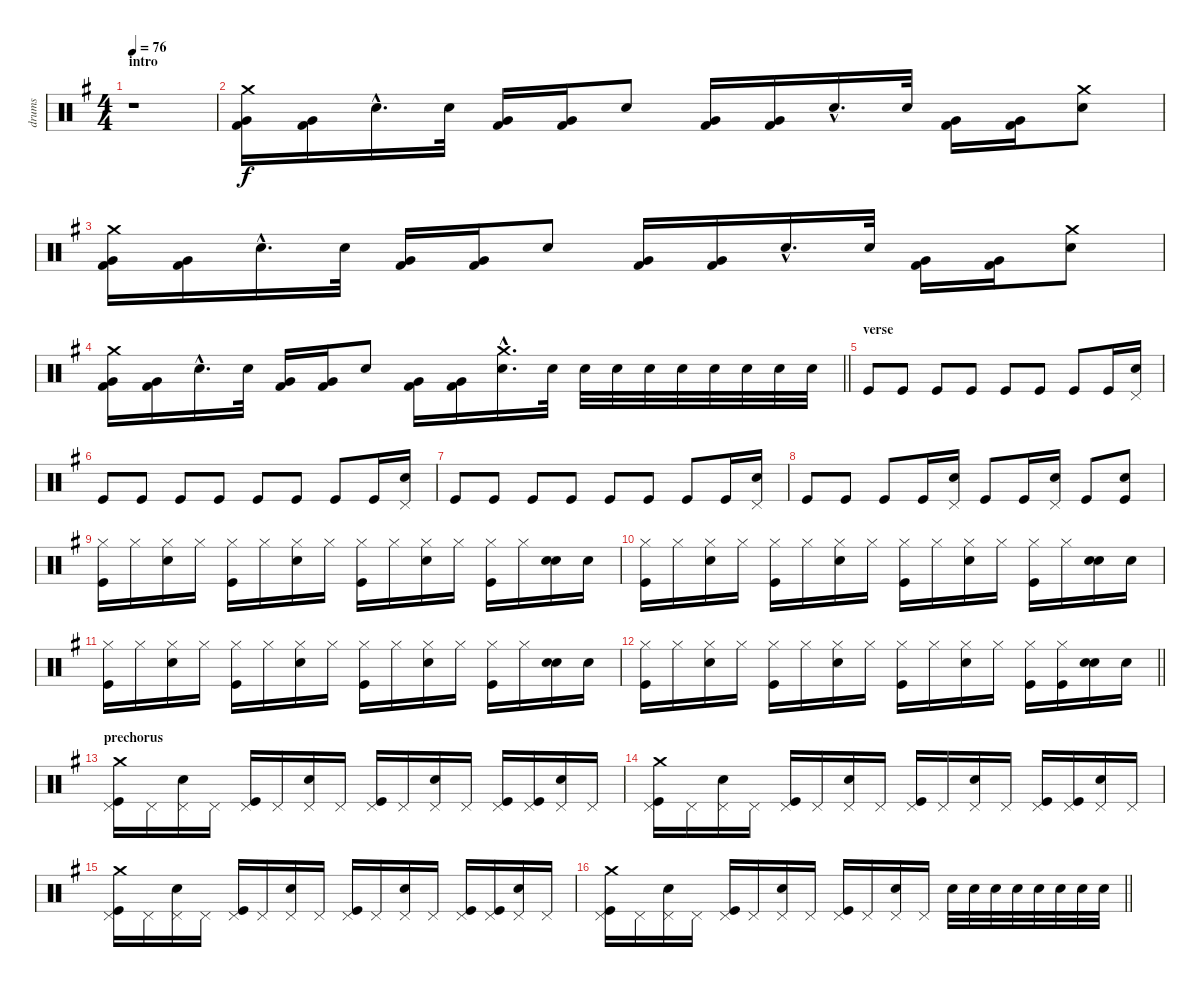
\track ("drums" "drums") {instrument percussion}
\staff {score}
\articulation defaults
\ts (4 4)
\section ("" "intro")
\tempo 76
\clef neutral
\ks eminor
r.1{dy f} |
("Crash medium (hit)" "Very Low Tom (hit)" "Kick (hit) 2").16 ("Very Low Tom (hit)" "Kick (hit) 2").16 "Snare (hit) 2"{hac}.16{d} "Snare (hit) 2".32 ("Very Low Tom (hit)" "Kick (hit) 2").16 ("Very Low Tom (hit)" "Kick (hit) 2").16 "Snare (hit) 2".8 ("Very Low Tom (hit)" "Kick (hit) 2").16 ("Very Low Tom (hit)" "Kick (hit) 2").16 "Snare (hit) 2"{hac}.16{d} "Snare (hit) 2".32 ("Very Low Tom (hit)" "Kick (hit) 2").16 ("Very Low Tom (hit)" "Kick (hit) 2").16 ("Crash medium (hit)" "Snare (hit) 2").8 |
("Crash medium (hit)" "Very Low Tom (hit)" "Kick (hit) 2").16 ("Very Low Tom (hit)" "Kick (hit) 2").16 "Snare (hit) 2"{hac}.16{d} "Snare (hit) 2".32 ("Very Low Tom (hit)" "Kick (hit) 2").16 ("Very Low Tom (hit)" "Kick (hit) 2").16 "Snare (hit) 2".8 ("Very Low Tom (hit)" "Kick (hit) 2").16 ("Very Low Tom (hit)" "Kick (hit) 2").16 "Snare (hit) 2"{hac}.16{d} "Snare (hit) 2".32 ("Very Low Tom (hit)" "Kick (hit) 2").16 ("Very Low Tom (hit)" "Kick (hit) 2").16 ("Crash medium (hit)" "Snare (hit) 2").8 |
\barLineRight lightlight
("Crash medium (hit)" "Very Low Tom (hit)" "Kick (hit) 2").16 ("Very Low Tom (hit)" "Kick (hit) 2").16 "Snare (hit) 2"{hac}.16{d} "Snare (hit) 2".32 ("Very Low Tom (hit)" "Kick (hit) 2").16 ("Very Low Tom (hit)" "Kick (hit) 2").16 "Snare (hit) 2".8 ("Very Low Tom (hit)" "Kick (hit) 2").16 ("Very Low Tom (hit)" "Kick (hit) 2").16 ("Crash medium (hit)"{hac} "Snare (hit) 2"{hac}).16{d} "Snare (hit) 2".32 "Snare (hit) 2".32 "Snare (hit) 2".32 "Snare (hit) 2".32 "Snare (hit) 2".32 "Snare (hit) 2".32 "Snare (hit) 2".32 "Snare (hit) 2".32 "Snare (hit) 2".32 |
\section ("" "verse")
"Kick (hit)".8 "Kick (hit)".8 "Kick (hit)".8 "Kick (hit)".8 "Kick (hit)".8 "Kick (hit)".8 "Kick (hit)".8 "Kick (hit)".16 ("Pedal Hi-Hat (hit)" "Snare (hit) 2").16 |
"Kick (hit)".8 "Kick (hit)".8 "Kick (hit)".8 "Kick (hit)".8 "Kick (hit)".8 "Kick (hit)".8 "Kick (hit)".8 "Kick (hit)".16 ("Pedal Hi-Hat (hit)" "Snare (hit) 2").16 |
"Kick (hit)".8 "Kick (hit)".8 "Kick (hit)".8 "Kick (hit)".8 "Kick (hit)".8 "Kick (hit)".8 "Kick (hit)".8 "Kick (hit)".16 ("Pedal Hi-Hat (hit)" "Snare (hit) 2").16 |
"Kick (hit)".8 "Kick (hit)".8 "Kick (hit)".8 "Kick (hit)".16 ("Pedal Hi-Hat (hit)" "Snare (hit) 2").16 "Kick (hit)".8 "Kick (hit)".16 ("Pedal Hi-Hat (hit)" "Snare (hit) 2").16 "Kick (hit)".8 ("Snare (hit) 2" "Kick (hit)").8 |
("Hi-Hat (closed)" "Kick (hit)").16 "Hi-Hat (closed)".16 ("Hi-Hat (closed)" "Snare (hit) 2").16 "Hi-Hat (closed)".16 ("Hi-Hat (closed)" "Kick (hit)").16 "Hi-Hat (closed)".16 ("Hi-Hat (closed)" "Snare (hit) 2").16 "Hi-Hat (closed)".16 ("Hi-Hat (closed)" "Kick (hit)").16 "Hi-Hat (closed)".16 ("Hi-Hat (closed)" "Snare (hit) 2").16 "Hi-Hat (closed)".16 ("Hi-Hat (closed)" "Kick (hit)").16 "Hi-Hat (closed)".16 ("Snare (hit)" "Snare (hit) 2").16 "Snare (hit)".16 |
("Hi-Hat (closed)" "Kick (hit)").16 "Hi-Hat (closed)".16 ("Hi-Hat (closed)" "Snare (hit) 2").16 "Hi-Hat (closed)".16 ("Hi-Hat (closed)" "Kick (hit)").16 "Hi-Hat (closed)".16 ("Hi-Hat (closed)" "Snare (hit) 2").16 "Hi-Hat (closed)".16 ("Hi-Hat (closed)" "Kick (hit)").16 "Hi-Hat (closed)".16 ("Hi-Hat (closed)" "Snare (hit) 2").16 "Hi-Hat (closed)".16 ("Hi-Hat (closed)" "Kick (hit)").16 "Hi-Hat (closed)".16 ("Snare (hit)" "Snare (hit) 2").16 "Snare (hit)".16 |
("Hi-Hat (closed)" "Kick (hit)").16 "Hi-Hat (closed)".16 ("Hi-Hat (closed)" "Snare (hit) 2").16 "Hi-Hat (closed)".16 ("Hi-Hat (closed)" "Kick (hit)").16 "Hi-Hat (closed)".16 ("Hi-Hat (closed)" "Snare (hit) 2").16 "Hi-Hat (closed)".16 ("Hi-Hat (closed)" "Kick (hit)").16 "Hi-Hat (closed)".16 ("Hi-Hat (closed)" "Snare (hit) 2").16 "Hi-Hat (closed)".16 ("Hi-Hat (closed)" "Kick (hit)").16 "Hi-Hat (closed)".16 ("Snare (hit)" "Snare (hit) 2").16 "Snare (hit)".16 |
\barLineRight lightlight
("Hi-Hat (closed)" "Kick (hit)").16 "Hi-Hat (closed)".16 ("Hi-Hat (closed)" "Snare (hit) 2").16 "Hi-Hat (closed)".16 ("Hi-Hat (closed)" "Kick (hit)").16 "Hi-Hat (closed)".16 ("Hi-Hat (closed)" "Snare (hit) 2").16 "Hi-Hat (closed)".16 ("Hi-Hat (closed)" "Kick (hit)").16 "Hi-Hat (closed)".16 ("Hi-Hat (closed)" "Snare (hit) 2").16 "Hi-Hat (closed)".16 ("Hi-Hat (closed)" "Kick (hit)").16 ("Hi-Hat (closed)" "Kick (hit)").16 ("Snare (hit)" "Snare (hit) 2").16 "Snare (hit)".16 |
\section ("" "prechorus")
("Crash medium (hit)" "Pedal Hi-Hat (hit)" "Kick (hit)").16 "Pedal Hi-Hat (hit)".16 ("Pedal Hi-Hat (hit)" "Snare (hit) 2").16 "Pedal Hi-Hat (hit)".16 ("Pedal Hi-Hat (hit)" "Kick (hit)").16 "Pedal Hi-Hat (hit)".16 ("Pedal Hi-Hat (hit)" "Snare (hit) 2").16 "Pedal Hi-Hat (hit)".16 ("Pedal Hi-Hat (hit)" "Kick (hit)").16 "Pedal Hi-Hat (hit)".16 ("Pedal Hi-Hat (hit)" "Snare (hit) 2").16 "Pedal Hi-Hat (hit)".16 ("Pedal Hi-Hat (hit)" "Kick (hit)").16 ("Pedal Hi-Hat (hit)" "Kick (hit)").16 ("Pedal Hi-Hat (hit)" "Snare (hit) 2").16 "Pedal Hi-Hat (hit)".16 |
("Crash medium (hit)" "Pedal Hi-Hat (hit)" "Kick (hit)").16 "Pedal Hi-Hat (hit)".16 ("Pedal Hi-Hat (hit)" "Snare (hit) 2").16 "Pedal Hi-Hat (hit)".16 ("Pedal Hi-Hat (hit)" "Kick (hit)").16 "Pedal Hi-Hat (hit)".16 ("Pedal Hi-Hat (hit)" "Snare (hit) 2").16 "Pedal Hi-Hat (hit)".16 ("Pedal Hi-Hat (hit)" "Kick (hit)").16 "Pedal Hi-Hat (hit)".16 ("Pedal Hi-Hat (hit)" "Snare (hit) 2").16 "Pedal Hi-Hat (hit)".16 ("Pedal Hi-Hat (hit)" "Kick (hit)").16 ("Pedal Hi-Hat (hit)" "Kick (hit)").16 ("Pedal Hi-Hat (hit)" "Snare (hit) 2").16 "Pedal Hi-Hat (hit)".16 |
("Crash medium (hit)" "Pedal Hi-Hat (hit)" "Kick (hit)").16 "Pedal Hi-Hat (hit)".16 ("Pedal Hi-Hat (hit)" "Snare (hit) 2").16 "Pedal Hi-Hat (hit)".16 ("Pedal Hi-Hat (hit)" "Kick (hit)").16 "Pedal Hi-Hat (hit)".16 ("Pedal Hi-Hat (hit)" "Snare (hit) 2").16 "Pedal Hi-Hat (hit)".16 ("Pedal Hi-Hat (hit)" "Kick (hit)").16 "Pedal Hi-Hat (hit)".16 ("Pedal Hi-Hat (hit)" "Snare (hit) 2").16 "Pedal Hi-Hat (hit)".16 ("Pedal Hi-Hat (hit)" "Kick (hit)").16 ("Pedal Hi-Hat (hit)" "Kick (hit)").16 ("Pedal Hi-Hat (hit)" "Snare (hit) 2").16 "Pedal Hi-Hat (hit)".16 |
\barLineRight lightlight
("Crash medium (hit)" "Pedal Hi-Hat (hit)" "Kick (hit)").16 "Pedal Hi-Hat (hit)".16 ("Pedal Hi-Hat (hit)" "Snare (hit) 2").16 "Pedal Hi-Hat (hit)".16 ("Pedal Hi-Hat (hit)" "Kick (hit)").16 "Pedal Hi-Hat (hit)".16 ("Pedal Hi-Hat (hit)" "Snare (hit) 2").16 "Pedal Hi-Hat (hit)".16 ("Pedal Hi-Hat (hit)" "Kick (hit)").16 "Pedal Hi-Hat (hit)".16 ("Pedal Hi-Hat (hit)" "Snare (hit) 2").16 "Pedal Hi-Hat (hit)".16 "Snare (hit) 2".32 "Snare (hit) 2".32 "Snare (hit) 2".32 "Snare (hit) 2".32 "Snare (hit) 2".32 "Snare (hit) 2".32 "Snare (hit) 2".32 "Snare (hit) 2".32
